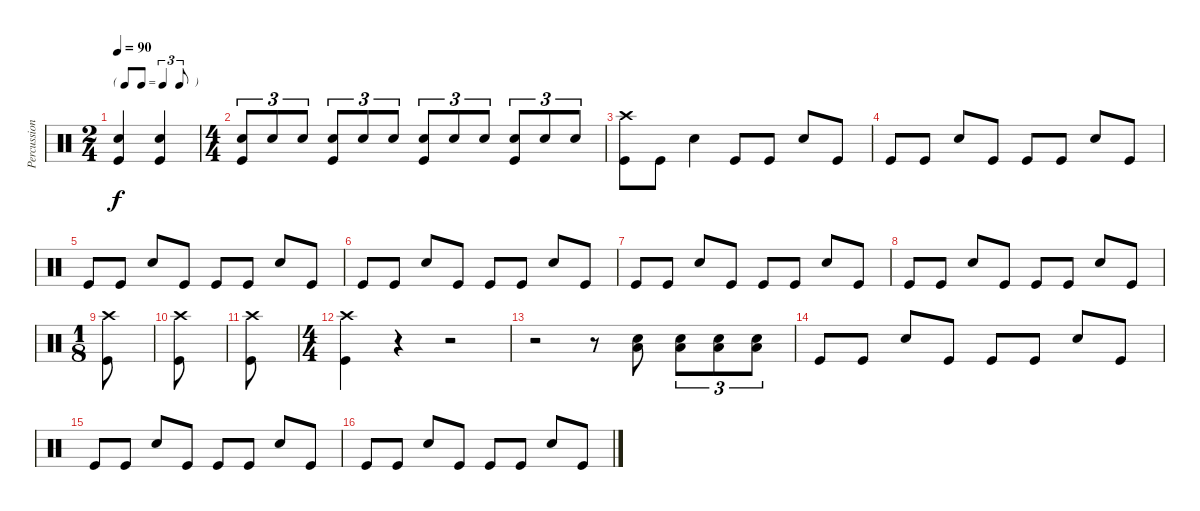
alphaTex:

\track ("Percussion" "Percussion") {instrument percussion}
\staff {score}
\articulation defaults
\ts (2 4)
\tf triplet8th
\tempo 90
\clef neutral
\ks c
("Snare (hit) 2" "Kick (hit)").4{dy f} ("Snare (hit) 2" "Kick (hit)").4 |
\ts (4 4)
("Snare (hit) 2" "Kick (hit)").8{tu (3 2)} "Snare (hit) 2".8{tu (3 2)} "Snare (hit) 2".8{tu (3 2)} ("Snare (hit) 2" "Kick (hit)").8{tu (3 2)} "Snare (hit) 2".8{tu (3 2)} "Snare (hit) 2".8{tu (3 2)} ("Snare (hit) 2" "Kick (hit)").8{tu (3 2)} "Snare (hit) 2".8{tu (3 2)} "Snare (hit) 2".8{tu (3 2)} ("Snare (hit) 2" "Kick (hit)").8{tu (3 2)} "Snare (hit) 2".8{tu (3 2)} "Snare (hit) 2".8{tu (3 2)} |
("Crash high (hit)" "Kick (hit)").8 "Kick (hit)".8 "Snare (hit) 2".4 "Kick (hit)".8 "Kick (hit)".8 "Snare (hit) 2".8 "Kick (hit)".8 |
"Kick (hit)".8 "Kick (hit)".8 "Snare (hit) 2".8 "Kick (hit)".8 "Kick (hit)".8 "Kick (hit)".8 "Snare (hit) 2".8 "Kick (hit)".8 |
"Kick (hit)".8 "Kick (hit)".8 "Snare (hit) 2".8 "Kick (hit)".8 "Kick (hit)".8 "Kick (hit)".8 "Snare (hit) 2".8 "Kick (hit)".8 |
"Kick (hit)".8 "Kick (hit)".8 "Snare (hit) 2".8 "Kick (hit)".8 "Kick (hit)".8 "Kick (hit)".8 "Snare (hit) 2".8 "Kick (hit)".8 |
"Kick (hit)".8 "Kick (hit)".8 "Snare (hit) 2".8 "Kick (hit)".8 "Kick (hit)".8 "Kick (hit)".8 "Snare (hit) 2".8 "Kick (hit)".8 |
"Kick (hit)".8 "Kick (hit)".8 "Snare (hit) 2".8 "Kick (hit)".8 "Kick (hit)".8 "Kick (hit)".8 "Snare (hit) 2".8 "Kick (hit)".8 |
\ts (1 8)
("Crash high (hit)" "Kick (hit)").8 |
("Crash high (hit)" "Kick (hit)").8 |
("Crash high (hit)" "Kick (hit)").8 |
\ts (4 4)
("Crash high (hit)" "Kick (hit)").4 r.4 r.2 |
r.2 r.8 ("Snare (hit) 2" "Low Floor Tom (hit)").8 ("Snare (hit) 2" "Low Floor Tom (hit)").8{tu (3 2)} ("Snare (hit) 2" "Low Floor Tom (hit)").8{tu (3 2)} ("Snare (hit) 2" "Low Floor Tom (hit)").8{tu (3 2)} |
"Kick (hit)".8 "Kick (hit)".8 "Snare (hit) 2".8 "Kick (hit)".8 "Kick (hit)".8 "Kick (hit)".8 "Snare (hit) 2".8 "Kick (hit)".8 |
"Kick (hit)".8 "Kick (hit)".8 "Snare (hit) 2".8 "Kick (hit)".8 "Kick (hit)".8 "Kick (hit)".8 "Snare (hit) 2".8 "Kick (hit)".8 |
"Kick (hit)".8 "Kick (hit)".8 "Snare (hit) 2".8 "Kick (hit)".8 "Kick (hit)".8 "Kick (hit)".8 "Snare (hit) 2".8 "Kick (hit)".8
